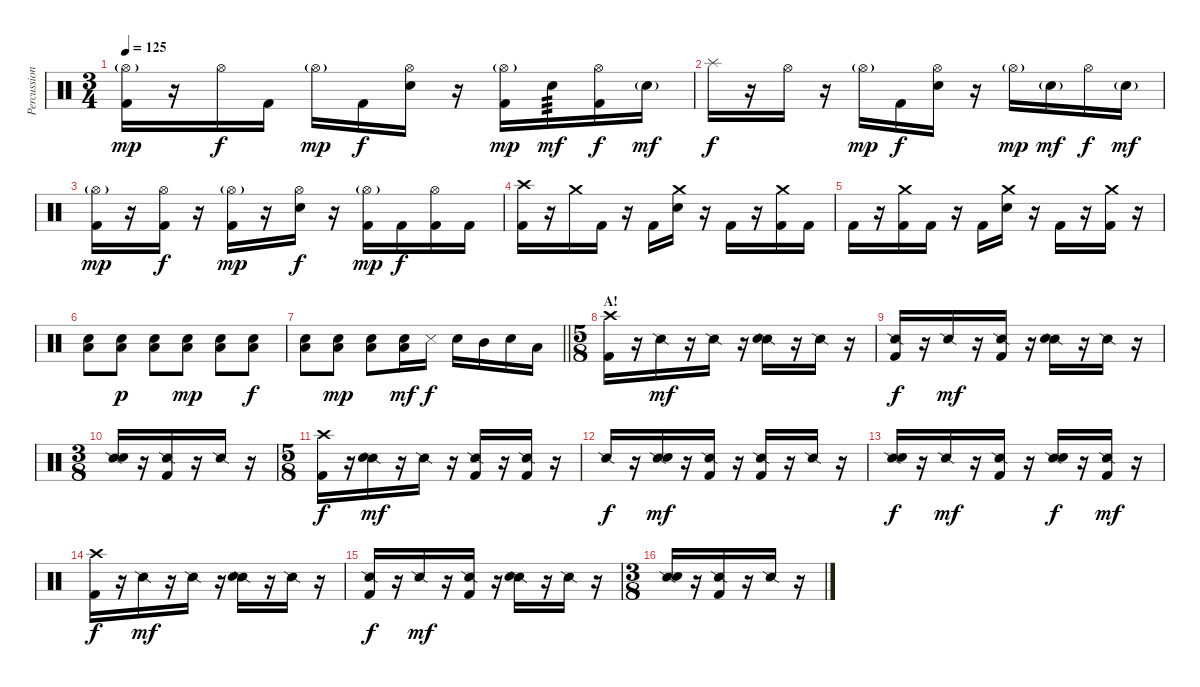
\track ("Percussion" "Percussion") {instrument percussion}
\staff {score}
\articulation defaults
\ts (3 4)
\tempo 125
\clef neutral
\ks c
("Hi-Hat (open)"{g} "Kick (hit) 2").16{dy mp} r.16 "Hi-Hat (open)".16{dy f} "Kick (hit) 2".16 "Hi-Hat (open)"{g}.16{dy mp} "Kick (hit) 2".16{dy f} ("Hi-Hat (open)" "Snare (hit) 2").16 r.16 ("Hi-Hat (open)"{g} "Kick (hit) 2").16{dy mp} "Snare (hit) 2".16{tp 3 dy mf} ("Hi-Hat (open)" "Kick (hit) 2").16{dy f} "Snare (hit) 2"{g}.16{dy mf} |
"Splash (hit)".16{dy f} r.16 "Hi-Hat (open)".16 r.16 "Hi-Hat (open)"{g}.16{dy mp} "Kick (hit) 2".16{dy f} ("Hi-Hat (open)" "Snare (hit) 2").16 r.16 "Hi-Hat (open)"{g}.16{dy mp} "Snare (hit) 2"{g}.16{dy mf} "Hi-Hat (open)".16{dy f} "Snare (hit) 2"{g}.16{dy mf} |
("Hi-Hat (open)"{g} "Kick (hit) 2").16{dy mp} r.16 ("Hi-Hat (open)" "Kick (hit) 2").16{dy f} r.16 ("Hi-Hat (open)"{g} "Kick (hit) 2").16{dy mp} r.16 ("Hi-Hat (open)" "Snare (hit) 2").16{dy f} r.16 ("Hi-Hat (open)"{g} "Kick (hit) 2").16{dy mp} "Kick (hit) 2".16{dy f} ("Hi-Hat (open)" "Kick (hit) 2").16 "Kick (hit) 2".16 |
("Crash high (hit)" "Kick (hit) 2").16 r.16 "Crash medium (hit)".16 "Kick (hit) 2".16 r.16 "Kick (hit) 2".16 ("Crash medium (hit)" "Snare (hit) 2").16 r.16 "Kick (hit) 2".16 r.16 ("Crash medium (hit)" "Kick (hit) 2").16 "Kick (hit) 2".16 |
"Kick (hit) 2".16 r.16 ("Crash medium (hit)" "Kick (hit) 2").16 "Kick (hit) 2".16 r.16 "Kick (hit) 2".16 ("Crash medium (hit)" "Snare (hit) 2").16 r.16 "Kick (hit) 2".16 r.16 ("Crash medium (hit)" "Kick (hit) 2").16 r.16 |
("Low Tom (hit)" "Snare (hit) 2").8 ("Low Tom (hit)" "Snare (hit) 2").8{dy p} ("Low Tom (hit)" "Snare (hit) 2").8 ("Low Tom (hit)" "Snare (hit) 2").8{dy mp} ("Low Tom (hit)" "Snare (hit) 2").8 ("Low Tom (hit)" "Snare (hit) 2").8{dy f} |
\barLineRight lightlight
("Low Tom (hit)" "Snare (hit) 2").8 ("Low Tom (hit)" "Snare (hit) 2").8{dy mp} ("Low Tom (hit)" "Snare (hit) 2").8 ("Low Tom (hit)" "Snare (hit) 2").16{dy mf} "Metronome (hit)".16{dy f} "Snare (hit) 2".16 "Mid Tom (hit)".16 "Snare (hit) 2".16 "Low Tom (hit)".16 |
\ts (5 8)
\section ("" "A!")
("Crash high (hit)" "Kick (hit) 2").16 r.16 "Snare (side stick) 2".16{dy mf} r.16 "Snare (side stick) 2".16 r.16 ("Snare (side stick) 2" "Snare (hit) 2").16 r.16 "Snare (side stick) 2".16 r.16 |
("Snare (side stick) 2" "Kick (hit) 2").16{dy f} r.16 "Snare (side stick) 2".16{dy mf} r.16 ("Snare (side stick) 2" "Kick (hit) 2").16 r.16 ("Snare (side stick) 2" "Snare (hit) 2").16 r.16 "Snare (side stick) 2".16 r.16 |
\ts (3 8)
("Snare (side stick) 2" "Snare (hit) 2").16 r.16 ("Snare (side stick) 2" "Kick (hit) 2").16 r.16 "Snare (side stick) 2".16 r.16 |
\ts (5 8)
("Crash high (hit)" "Kick (hit) 2").16{dy f} r.16 ("Snare (side stick) 2" "Snare (hit) 2").16{dy mf} r.16 "Snare (side stick) 2".16 r.16 ("Snare (side stick) 2" "Kick (hit) 2").16 r.16 ("Snare (side stick) 2" "Kick (hit) 2").16 r.16 |
"Snare (side stick) 2".16{dy f} r.16 ("Snare (side stick) 2" "Snare (hit) 2").16{dy mf} r.16 ("Snare (side stick) 2" "Kick (hit) 2").16 r.16 ("Snare (side stick) 2" "Kick (hit) 2").16 r.16 "Snare (side stick) 2".16 r.16 |
("Snare (side stick) 2" "Snare (hit) 2").16{dy f} r.16 "Snare (side stick) 2".16{dy mf} r.16 ("Snare (side stick) 2" "Kick (hit) 2").16 r.16 ("Snare (side stick) 2" "Snare (hit) 2").16{dy f} r.16 ("Snare (side stick) 2" "Kick (hit) 2").16{dy mf} r.16 |
("Crash high (hit)" "Kick (hit) 2").16{dy f} r.16 "Snare (side stick) 2".16{dy mf} r.16 "Snare (side stick) 2".16 r.16 ("Snare (side stick) 2" "Snare (hit) 2").16 r.16 "Snare (side stick) 2".16 r.16 |
("Snare (side stick) 2" "Kick (hit) 2").16{dy f} r.16 "Snare (side stick) 2".16{dy mf} r.16 ("Snare (side stick) 2" "Kick (hit) 2").16 r.16 ("Snare (side stick) 2" "Snare (hit) 2").16 r.16 "Snare (side stick) 2".16 r.16 |
\ts (3 8)
("Snare (side stick) 2" "Snare (hit) 2").16 r.16 ("Snare (side stick) 2" "Kick (hit) 2").16 r.16 "Snare (side stick) 2".16 r.16
